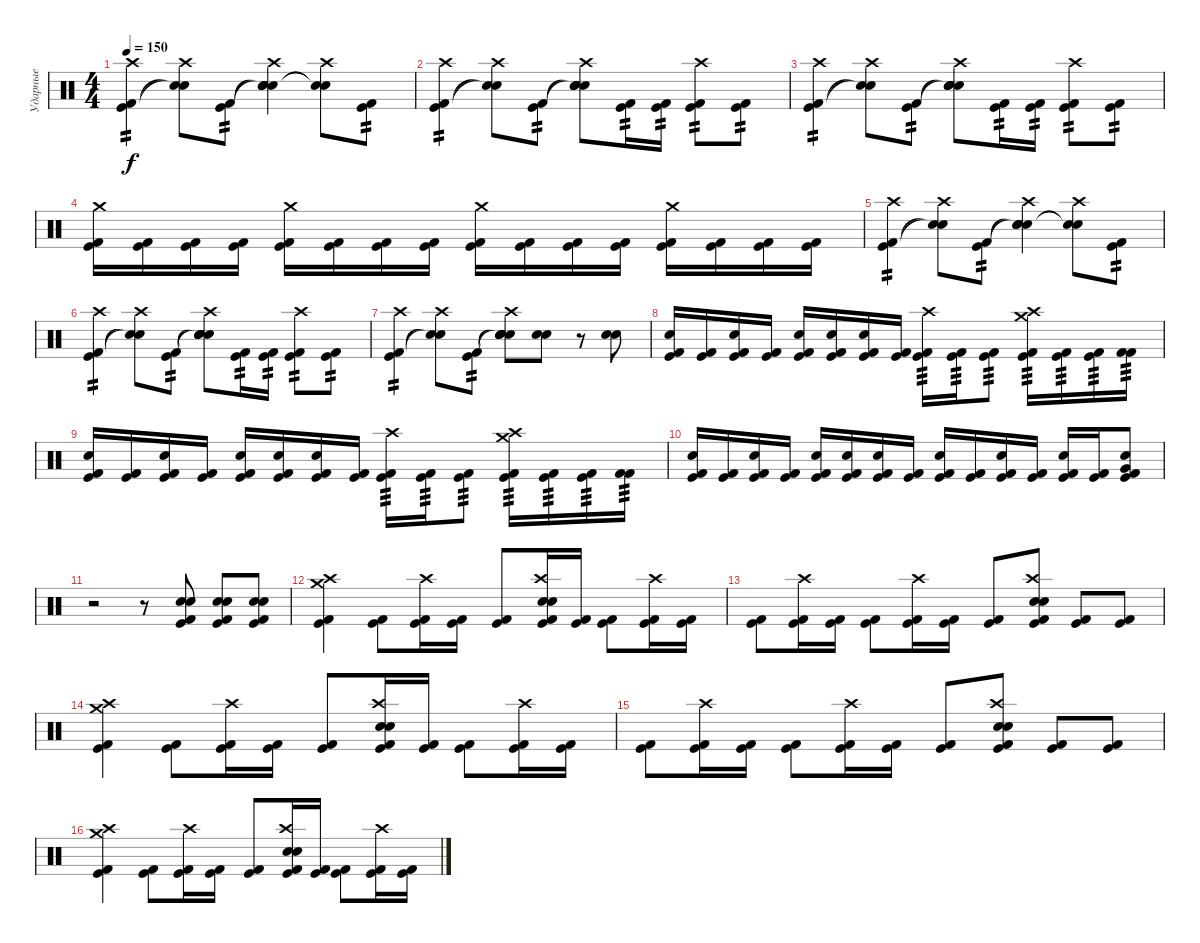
\track ("Ударные" "Ударные") {instrument percussion}
\staff {score}
\articulation defaults
\ts (4 4)
\tempo 150
\clef neutral
\ks c
("Kick (hit) 2" "Kick (hit)" "Crash high (hit)").4{tp 2 dy f} ("Snare (hit)"{t} "Snare (hit)"{t} "Crash high (hit)").8 ("Kick (hit) 2" "Kick (hit)").8{tp 2} ("Snare (hit)"{t} "Snare (hit)"{t} "Electric Snare (hit)" "Snare (hit) 2" "Crash high (hit)").4 ("Snare (hit)"{t} "Snare (hit)"{t} "Crash high (hit)").8 ("Kick (hit) 2" "Kick (hit)").8{tp 2} |
("Kick (hit) 2" "Kick (hit)" "Crash high (hit)").4{tp 2} ("Snare (hit)"{t} "Snare (hit)"{t} "Crash high (hit)").8 ("Kick (hit) 2" "Kick (hit)").8{tp 2} ("Snare (hit)"{t} "Snare (hit)"{t} "Electric Snare (hit)" "Snare (hit) 2" "Crash high (hit)").8 ("Kick (hit) 2" "Kick (hit)").16{tp 2} ("Kick (hit) 2" "Kick (hit)").16{tp 2} ("Kick (hit) 2" "Kick (hit)" "Crash high (hit)").8{tp 2} ("Kick (hit) 2" "Kick (hit)").8{tp 2} |
("Kick (hit) 2" "Kick (hit)" "Crash high (hit)").4{tp 2} ("Snare (hit)"{t} "Snare (hit)"{t} "Crash high (hit)").8 ("Kick (hit) 2" "Kick (hit)").8{tp 2} ("Snare (hit)"{t} "Snare (hit)"{t} "Electric Snare (hit)" "Snare (hit) 2" "Crash high (hit)").8 ("Kick (hit) 2" "Kick (hit)").16{tp 2} ("Kick (hit) 2" "Kick (hit)").16{tp 2} ("Kick (hit) 2" "Kick (hit)" "Crash high (hit)").8{tp 2} ("Kick (hit) 2" "Kick (hit)").8{tp 2} |
("Kick (hit)" "Kick (hit) 2" "Crash medium (hit)").16 ("Kick (hit)" "Kick (hit) 2").16 ("Kick (hit)" "Kick (hit) 2").16 ("Kick (hit)" "Kick (hit) 2").16 ("Kick (hit)" "Kick (hit) 2" "Crash medium (hit)").16 ("Kick (hit)" "Kick (hit) 2").16 ("Kick (hit)" "Kick (hit) 2").16 ("Kick (hit)" "Kick (hit) 2").16 ("Kick (hit)" "Kick (hit) 2" "Crash medium (hit)").16 ("Kick (hit)" "Kick (hit) 2").16 ("Kick (hit)" "Kick (hit) 2").16 ("Kick (hit)" "Kick (hit) 2").16 ("Kick (hit)" "Kick (hit) 2" "Crash medium (hit)").16 ("Kick (hit)" "Kick (hit) 2").16 ("Kick (hit)" "Kick (hit) 2").16 ("Kick (hit)" "Kick (hit) 2").16 |
("Kick (hit) 2" "Kick (hit)" "Crash high (hit)").4{tp 2} ("Snare (hit)"{t} "Snare (hit)"{t} "Crash high (hit)").8 ("Kick (hit) 2" "Kick (hit)").8{tp 2} ("Snare (hit)"{t} "Snare (hit)"{t} "Electric Snare (hit)" "Snare (hit) 2" "Crash high (hit)").4 ("Snare (hit)"{t} "Snare (hit)"{t} "Crash high (hit)").8 ("Kick (hit) 2" "Kick (hit)").8{tp 2} |
("Kick (hit) 2" "Kick (hit)" "Crash high (hit)").4{tp 2} ("Snare (hit)"{t} "Snare (hit)"{t} "Crash high (hit)").8 ("Kick (hit) 2" "Kick (hit)").8{tp 2} ("Snare (hit)"{t} "Snare (hit)"{t} "Electric Snare (hit)" "Snare (hit) 2" "Crash high (hit)").8 ("Kick (hit) 2" "Kick (hit)").16{tp 2} ("Kick (hit) 2" "Kick (hit)").16{tp 2} ("Kick (hit) 2" "Kick (hit)" "Crash high (hit)").8{tp 2} ("Kick (hit) 2" "Kick (hit)").8{tp 2} |
("Kick (hit) 2" "Kick (hit)" "Crash high (hit)").4{tp 2} ("Snare (hit)"{t} "Snare (hit)"{t} "Crash high (hit)").8 ("Kick (hit) 2" "Kick (hit)").8{tp 2} ("Snare (hit)"{t} "Snare (hit)"{t} "Electric Snare (hit)" "Snare (hit) 2" "Crash high (hit)").8 ("Snare (hit) 2" "Electric Snare (hit)").8 r.8 ("Snare (hit) 2" "Electric Snare (hit)").8 |
("Kick (hit) 2" "Kick (hit)" "Electric Snare (hit)").16 ("Kick (hit) 2" "Kick (hit)").16 ("Kick (hit) 2" "Kick (hit)" "Electric Snare (hit)").16 ("Kick (hit)" "Kick (hit) 2").16 ("Kick (hit) 2" "Kick (hit)" "Electric Snare (hit)").16 ("Kick (hit) 2" "Kick (hit)" "Electric Snare (hit)").16 ("Kick (hit) 2" "Kick (hit)" "Electric Snare (hit)").16 ("Kick (hit)" "Kick (hit) 2").16 ("Kick (hit) 2" "Kick (hit)" "Crash high (hit)").16{tp 3} ("Kick (hit) 2" "Kick (hit)").16{tp 3} ("Kick (hit) 2" "Kick (hit)").8{tp 3} ("Kick (hit) 2" "Kick (hit)" "Crash medium (hit)" "Crash high (hit)").16{tp 3} ("Kick (hit) 2" "Kick (hit)").16{tp 3} ("Kick (hit) 2" "Kick (hit)").16{tp 3} ("Kick (hit) 2" "Kick (hit) 2").16{tp 3} |
("Kick (hit) 2" "Kick (hit)" "Electric Snare (hit)").16 ("Kick (hit) 2" "Kick (hit)").16 ("Kick (hit) 2" "Kick (hit)" "Electric Snare (hit)").16 ("Kick (hit)" "Kick (hit) 2").16 ("Kick (hit) 2" "Kick (hit)" "Electric Snare (hit)").16 ("Kick (hit) 2" "Kick (hit)" "Electric Snare (hit)").16 ("Kick (hit) 2" "Kick (hit)" "Electric Snare (hit)").16 ("Kick (hit)" "Kick (hit) 2").16 ("Kick (hit) 2" "Kick (hit)" "Crash high (hit)").16{tp 3} ("Kick (hit) 2" "Kick (hit)").16{tp 3} ("Kick (hit) 2" "Kick (hit)").8{tp 3} ("Kick (hit) 2" "Kick (hit)" "Crash medium (hit)" "Crash high (hit)").16{tp 3} ("Kick (hit) 2" "Kick (hit)").16{tp 3} ("Kick (hit) 2" "Kick (hit)").16{tp 3} ("Kick (hit) 2" "Kick (hit) 2").16{tp 3} |
("Kick (hit) 2" "Kick (hit)" "Electric Snare (hit)").16 ("Kick (hit) 2" "Kick (hit)").16 ("Kick (hit) 2" "Kick (hit)" "Electric Snare (hit)").16 ("Kick (hit)" "Kick (hit) 2").16 ("Kick (hit) 2" "Kick (hit)" "Electric Snare (hit)").16 ("Kick (hit) 2" "Kick (hit)" "Electric Snare (hit)").16 ("Kick (hit) 2" "Kick (hit)" "Electric Snare (hit)").16 ("Kick (hit)" "Kick (hit) 2").16 ("Kick (hit) 2" "Kick (hit)" "Electric Snare (hit)").16 ("Kick (hit) 2" "Kick (hit)").16 ("Kick (hit) 2" "Kick (hit)" "Electric Snare (hit)").16 ("Kick (hit)" "Kick (hit) 2").16 ("Kick (hit) 2" "Kick (hit)" "Electric Snare (hit)").16 ("Kick (hit) 2" "Kick (hit)").16 ("Kick (hit) 2" "Kick (hit)" "Very Low Tom (hit)" "Electric Snare (hit)").8 |
r.2 r.8 ("Kick (hit)" "Kick (hit) 2" "Electric Snare (hit)" "Snare (hit) 2").8 ("Kick (hit)" "Kick (hit) 2" "Electric Snare (hit)" "Snare (hit) 2").8 ("Kick (hit)" "Kick (hit) 2" "Electric Snare (hit)" "Snare (hit) 2").8 |
("Kick (hit) 2" "Kick (hit)" "Crash medium (hit)" "Crash high (hit)").4 ("Kick (hit) 2" "Kick (hit)").8 ("Kick (hit) 2" "Kick (hit)" "Crash high (hit)").16 ("Kick (hit) 2" "Kick (hit)").16 ("Kick (hit) 2" "Kick (hit)").8 ("Kick (hit) 2" "Kick (hit)" "Electric Snare (hit)" "Snare (hit) 2" "Crash high (hit)").16 ("Kick (hit) 2" "Kick (hit)").16 ("Kick (hit) 2" "Kick (hit)").8 ("Kick (hit) 2" "Kick (hit)" "Crash high (hit)").16 ("Kick (hit) 2" "Kick (hit)").16 |
("Kick (hit) 2" "Kick (hit)").8 ("Kick (hit) 2" "Kick (hit)" "Crash high (hit)").16 ("Kick (hit) 2" "Kick (hit)").16 ("Kick (hit) 2" "Kick (hit)").8 ("Kick (hit) 2" "Kick (hit)" "Crash high (hit)").16 ("Kick (hit) 2" "Kick (hit)").16 ("Kick (hit) 2" "Kick (hit)").8 ("Kick (hit) 2" "Kick (hit)" "Electric Snare (hit)" "Snare (hit) 2" "Crash high (hit)").8 ("Kick (hit) 2" "Kick (hit)").8 ("Kick (hit) 2" "Kick (hit)").8 |
("Kick (hit) 2" "Kick (hit)" "Crash medium (hit)" "Crash high (hit)").4 ("Kick (hit) 2" "Kick (hit)").8 ("Kick (hit) 2" "Kick (hit)" "Crash high (hit)").16 ("Kick (hit) 2" "Kick (hit)").16 ("Kick (hit) 2" "Kick (hit)").8 ("Kick (hit) 2" "Kick (hit)" "Electric Snare (hit)" "Snare (hit) 2" "Crash high (hit)").16 ("Kick (hit) 2" "Kick (hit)").16 ("Kick (hit) 2" "Kick (hit)").8 ("Kick (hit) 2" "Kick (hit)" "Crash high (hit)").16 ("Kick (hit) 2" "Kick (hit)").16 |
("Kick (hit) 2" "Kick (hit)").8 ("Kick (hit) 2" "Kick (hit)" "Crash high (hit)").16 ("Kick (hit) 2" "Kick (hit)").16 ("Kick (hit) 2" "Kick (hit)").8 ("Kick (hit) 2" "Kick (hit)" "Crash high (hit)").16 ("Kick (hit) 2" "Kick (hit)").16 ("Kick (hit) 2" "Kick (hit)").8 ("Kick (hit) 2" "Kick (hit)" "Electric Snare (hit)" "Snare (hit) 2" "Crash high (hit)").8 ("Kick (hit) 2" "Kick (hit)").8 ("Kick (hit) 2" "Kick (hit)").8 |
("Kick (hit) 2" "Kick (hit)" "Crash medium (hit)" "Crash high (hit)").4 ("Kick (hit) 2" "Kick (hit)").8 ("Kick (hit) 2" "Kick (hit)" "Crash high (hit)").16 ("Kick (hit) 2" "Kick (hit)").16 ("Kick (hit) 2" "Kick (hit)").8 ("Kick (hit) 2" "Kick (hit)" "Electric Snare (hit)" "Snare (hit) 2" "Crash high (hit)").16 ("Kick (hit) 2" "Kick (hit)").16 ("Kick (hit) 2" "Kick (hit)").8 ("Kick (hit) 2" "Kick (hit)" "Crash high (hit)").16 ("Kick (hit) 2" "Kick (hit)").16
